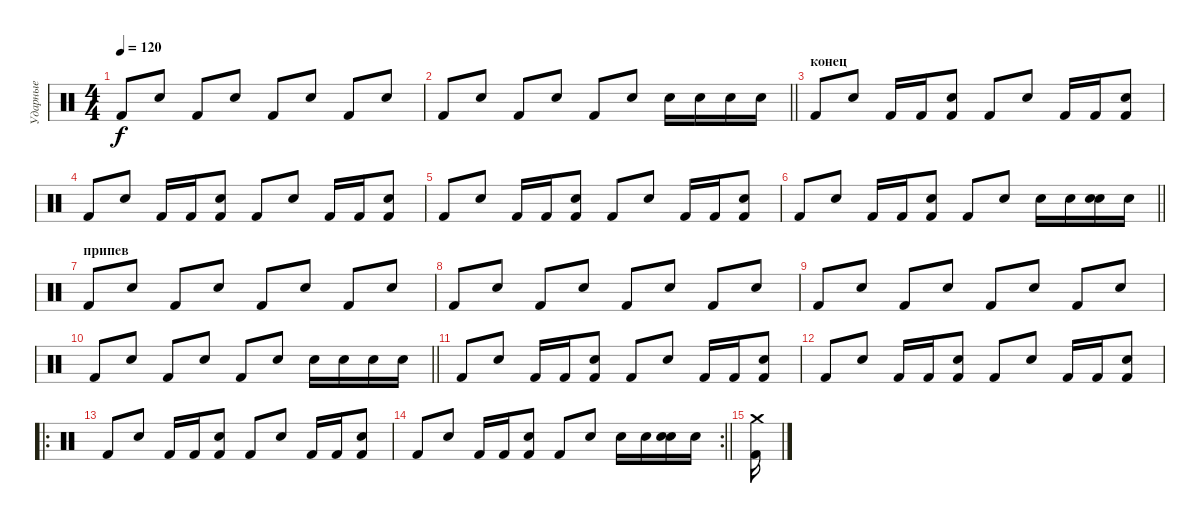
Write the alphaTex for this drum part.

\track ("Ударные" "Ударные") {instrument percussion}
\staff {score}
\articulation defaults
\ts (4 4)
\tempo 120
\clef neutral
\ks c "Kick (hit) 2".8{dy f} "Electric Snare (hit)".8 "Kick (hit) 2".8 "Electric Snare (hit)".8 "Kick (hit) 2".8 "Electric Snare (hit)".8 "Kick (hit) 2".8 "Electric Snare (hit)".8
|
\barLineRight lightlight "Kick (hit) 2".8 "Electric Snare (hit)".8 "Kick (hit) 2".8 "Electric Snare (hit)".8 "Kick (hit) 2".8 "Electric Snare (hit)".8 "Electric Snare (hit)".16 "Electric Snare (hit)".16 "Electric Snare (hit)".16 "Electric Snare (hit)".16
|
\section ("" "конец")
"Kick (hit) 2".8 "Electric Snare (hit)".8 "Kick (hit) 2".16 "Kick (hit) 2".16 ("Kick (hit) 2" "Electric Snare (hit)").8 "Kick (hit) 2".8 "Electric Snare (hit)".8 "Kick (hit) 2".16 "Kick (hit) 2".16 ("Kick (hit) 2" "Electric Snare (hit)").8 |
"Kick (hit) 2".8 "Electric Snare (hit)".8 "Kick (hit) 2".16 "Kick (hit) 2".16 ("Kick (hit) 2" "Electric Snare (hit)").8 "Kick (hit) 2".8 "Electric Snare (hit)".8 "Kick (hit) 2".16 "Kick (hit) 2".16 ("Kick (hit) 2" "Electric Snare (hit)").8 |
"Kick (hit) 2".8 "Electric Snare (hit)".8 "Kick (hit) 2".16 "Kick (hit) 2".16 ("Kick (hit) 2" "Electric Snare (hit)").8 "Kick (hit) 2".8 "Electric Snare (hit)".8 "Kick (hit) 2".16 "Kick (hit) 2".16 ("Kick (hit) 2" "Electric Snare (hit)").8 |
\barLineRight lightlight "Kick (hit) 2".8 "Electric Snare (hit)".8 "Kick (hit) 2".16 "Kick (hit) 2".16
("Kick (hit) 2" "Electric Snare (hit)").8 "Kick (hit) 2".8 "Electric Snare (hit)".8 "Electric Snare (hit)".16 "Electric Snare (hit)".16 ("Electric Snare (hit)" "Electric Snare (hit)").16 "Electric Snare (hit)".16 |
\section ("" "припев")
"Kick (hit) 2".8 "Electric Snare (hit)".8 "Kick (hit) 2".8 "Electric Snare (hit)".8 "Kick (hit) 2".8 "Electric Snare (hit)".8 "Kick (hit) 2".8 "Electric Snare (hit)".8 |
"Kick (hit) 2".8 "Electric Snare (hit)".8 "Kick (hit) 2".8 "Electric Snare (hit)".8 "Kick (hit) 2".8 "Electric Snare (hit)".8 "Kick (hit) 2".8 "Electric Snare (hit)".8 |
"Kick (hit) 2".8 "Electric Snare (hit)".8 "Kick (hit) 2".8 "Electric Snare (hit)".8 "Kick (hit) 2".8 "Electric Snare (hit)".8 "Kick (hit) 2".8 "Electric Snare (hit)".8 |
\barLineRight lightlight "Kick (hit) 2".8 "Electric Snare (hit)".8 "Kick (hit) 2".8 "Electric Snare (hit)".8 "Kick (hit) 2".8 "Electric Snare (hit)".8 "Electric Snare (hit)".16 "Electric Snare (hit)".16 "Electric Snare (hit)".16 "Electric Snare (hit)".16
|
"Kick (hit) 2".8 "Electric Snare (hit)".8 "Kick (hit) 2".16 "Kick (hit) 2".16 ("Kick (hit) 2" "Electric Snare (hit)").8 "Kick (hit) 2".8 "Electric Snare (hit)".8 "Kick (hit) 2".16 "Kick (hit) 2".16 ("Kick (hit) 2" "Electric Snare (hit)").8 |
"Kick (hit) 2".8 "Electric Snare (hit)".8 "Kick (hit) 2".16 "Kick (hit) 2".16 ("Kick (hit) 2" "Electric Snare (hit)").8 "Kick (hit) 2".8 "Electric Snare (hit)".8 "Kick (hit) 2".16 "Kick (hit) 2".16 ("Kick (hit) 2" "Electric Snare (hit)").8 |
\ro "Kick (hit) 2".8 "Electric Snare (hit)".8 "Kick (hit) 2".16 "Kick (hit) 2".16
("Kick (hit) 2" "Electric Snare (hit)").8 "Kick (hit) 2".8 "Electric Snare (hit)".8 "Kick (hit) 2".16 "Kick (hit) 2".16 ("Kick (hit) 2" "Electric Snare (hit)").8 |
\rc 2
\barLineRight lightlight "Kick (hit) 2".8 "Electric Snare (hit)".8 "Kick (hit) 2".16 "Kick (hit) 2".16
("Kick (hit) 2" "Electric Snare (hit)").8 "Kick (hit) 2".8 "Electric Snare (hit)".8 "Electric Snare (hit)".16 "Electric Snare (hit)".16 ("Electric Snare (hit)" "Electric Snare (hit)").16 "Electric Snare (hit)".16 |
("Crash medium (hit)" "Kick (hit) 2").16
